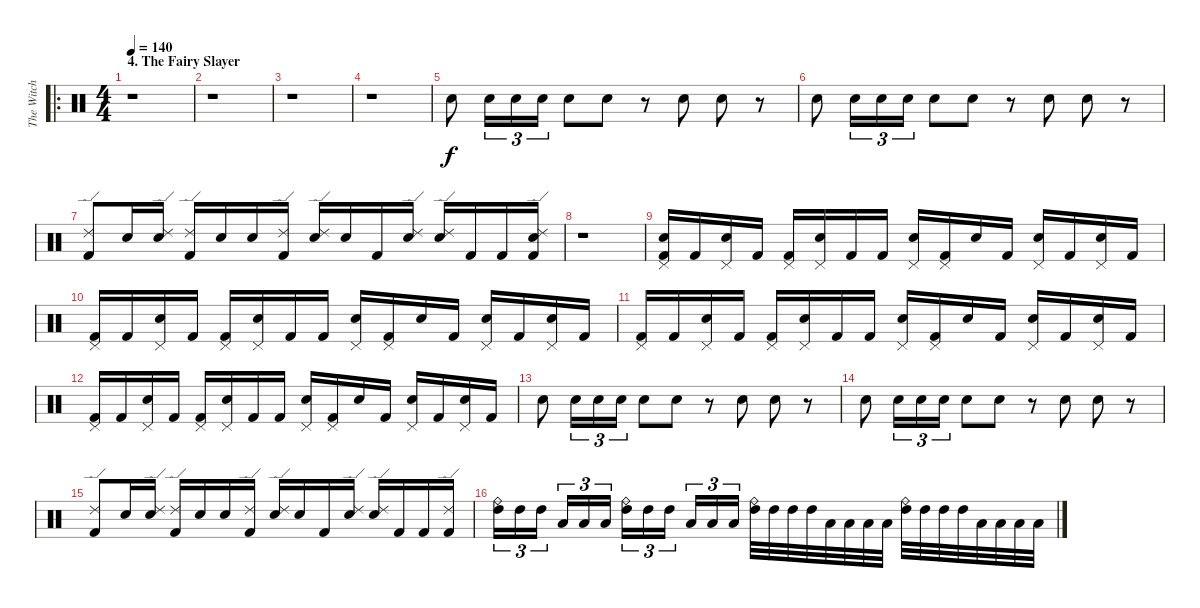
\track ("The Witch" "The Witch") {instrument percussion}
\staff {score}
\articulation defaults
\ro
\ts (4 4)
\section ("" "4. The Fairy Slayer")
\tempo 140
\clef neutral
\ks c
r.1{dy f} |
r.1 |
r.1 |
r.1 |
"Electric Snare (hit)".8 "Electric Snare (hit)".16{tu (3 2)} "Electric Snare (hit)".16{tu (3 2)} "Electric Snare (hit)".16{tu (3 2)} "Electric Snare (hit)".8 "Electric Snare (hit)".8 r.8 "Electric Snare (hit)".8 "Electric Snare (hit)".8 r.8 |
"Electric Snare (hit)".8 "Electric Snare (hit)".16{tu (3 2)} "Electric Snare (hit)".16{tu (3 2)} "Electric Snare (hit)".16{tu (3 2)} "Electric Snare (hit)".8 "Electric Snare (hit)".8 r.8 "Electric Snare (hit)".8 "Electric Snare (hit)".8 r.8 |
("Ride (edge) 2" "Kick (hit) 2").8 "Electric Snare (hit)".16 ("Ride (edge) 2" "Electric Snare (hit)").16 ("Ride (edge) 2" "Kick (hit) 2").16 "Electric Snare (hit)".16 "Electric Snare (hit)".16 ("Ride (edge) 2" "Kick (hit) 2").16 ("Ride (edge) 2" "Electric Snare (hit)").16 "Electric Snare (hit)".16 "Kick (hit) 2".16 ("Ride (edge) 2" "Electric Snare (hit)").16 ("Ride (edge) 2" "Electric Snare (hit)").16 "Kick (hit) 2".16 "Kick (hit) 2".16 ("Ride (edge) 2" "Electric Snare (hit)" "Kick (hit) 2").16 |
r.1 |
("Pedal Hi-Hat (hit)" "Electric Snare (hit)" "Kick (hit) 2").16 "Kick (hit) 2".16 ("Pedal Hi-Hat (hit)" "Electric Snare (hit)").16 "Kick (hit) 2".16 ("Pedal Hi-Hat (hit)" "Kick (hit) 2").16 ("Pedal Hi-Hat (hit)" "Electric Snare (hit)").16 "Kick (hit) 2".16 "Kick (hit) 2".16 ("Pedal Hi-Hat (hit)" "Electric Snare (hit)").16 ("Pedal Hi-Hat (hit)" "Kick (hit) 2").16 "Electric Snare (hit)".16 "Kick (hit) 2".16 ("Pedal Hi-Hat (hit)" "Electric Snare (hit)").16 "Kick (hit) 2".16 ("Pedal Hi-Hat (hit)" "Electric Snare (hit)").16 "Kick (hit) 2".16 |
("Pedal Hi-Hat (hit)" "Kick (hit) 2").16 "Kick (hit) 2".16 ("Pedal Hi-Hat (hit)" "Electric Snare (hit)").16 "Kick (hit) 2".16 ("Pedal Hi-Hat (hit)" "Kick (hit) 2").16 ("Pedal Hi-Hat (hit)" "Electric Snare (hit)").16 "Kick (hit) 2".16 "Kick (hit) 2".16 ("Pedal Hi-Hat (hit)" "Electric Snare (hit)").16 ("Pedal Hi-Hat (hit)" "Kick (hit) 2").16 "Electric Snare (hit)".16 "Kick (hit) 2".16 ("Pedal Hi-Hat (hit)" "Electric Snare (hit)").16 "Kick (hit) 2".16 ("Pedal Hi-Hat (hit)" "Electric Snare (hit)").16 "Kick (hit) 2".16 |
("Pedal Hi-Hat (hit)" "Kick (hit) 2").16 "Kick (hit) 2".16 ("Pedal Hi-Hat (hit)" "Electric Snare (hit)").16 "Kick (hit) 2".16 ("Pedal Hi-Hat (hit)" "Kick (hit) 2").16 ("Pedal Hi-Hat (hit)" "Electric Snare (hit)").16 "Kick (hit) 2".16 "Kick (hit) 2".16 ("Pedal Hi-Hat (hit)" "Electric Snare (hit)").16 ("Pedal Hi-Hat (hit)" "Kick (hit) 2").16 "Electric Snare (hit)".16 "Kick (hit) 2".16 ("Pedal Hi-Hat (hit)" "Electric Snare (hit)").16 "Kick (hit) 2".16 ("Pedal Hi-Hat (hit)" "Electric Snare (hit)").16 "Kick (hit) 2".16 |
("Pedal Hi-Hat (hit)" "Kick (hit) 2").16 "Kick (hit) 2".16 ("Pedal Hi-Hat (hit)" "Electric Snare (hit)").16 "Kick (hit) 2".16 ("Pedal Hi-Hat (hit)" "Kick (hit) 2").16 ("Pedal Hi-Hat (hit)" "Electric Snare (hit)").16 "Kick (hit) 2".16 "Kick (hit) 2".16 ("Pedal Hi-Hat (hit)" "Electric Snare (hit)").16 ("Pedal Hi-Hat (hit)" "Kick (hit) 2").16 "Electric Snare (hit)".16 "Kick (hit) 2".16 ("Pedal Hi-Hat (hit)" "Electric Snare (hit)").16 "Kick (hit) 2".16 ("Pedal Hi-Hat (hit)" "Electric Snare (hit)").16 "Kick (hit) 2".16 |
"Electric Snare (hit)".8 "Electric Snare (hit)".16{tu (3 2)} "Electric Snare (hit)".16{tu (3 2)} "Electric Snare (hit)".16{tu (3 2)} "Electric Snare (hit)".8 "Electric Snare (hit)".8 r.8 "Electric Snare (hit)".8 "Electric Snare (hit)".8 r.8 |
"Electric Snare (hit)".8 "Electric Snare (hit)".16{tu (3 2)} "Electric Snare (hit)".16{tu (3 2)} "Electric Snare (hit)".16{tu (3 2)} "Electric Snare (hit)".8 "Electric Snare (hit)".8 r.8 "Electric Snare (hit)".8 "Electric Snare (hit)".8 r.8 |
("Ride (edge) 2" "Kick (hit) 2").8 "Electric Snare (hit)".16 ("Ride (edge) 2" "Electric Snare (hit)").16 ("Ride (edge) 2" "Kick (hit) 2").16 "Electric Snare (hit)".16 "Electric Snare (hit)".16 ("Ride (edge) 2" "Kick (hit) 2").16 ("Ride (edge) 2" "Electric Snare (hit)").16 "Electric Snare (hit)".16 "Kick (hit) 2".16 ("Ride (edge) 2" "Electric Snare (hit)").16 ("Ride (edge) 2" "Electric Snare (hit)").16 "Kick (hit) 2".16 "Kick (hit) 2".16 ("Ride (edge) 2" "Kick (hit) 2").16 |
("Ride (bell)" "High Tom (hit)").16{tu (3 2)} "High Tom (hit)".16{tu (3 2)} "High Tom (hit)".16{tu (3 2)} "Low Tom (hit)".16{tu (3 2)} "Low Tom (hit)".16{tu (3 2)} "Low Tom (hit)".16{tu (3 2)} ("Ride (bell)" "High Tom (hit)").16{tu (3 2)} "High Tom (hit)".16{tu (3 2)} "High Tom (hit)".16{tu (3 2)} "Low Tom (hit)".16{tu (3 2)} "Low Tom (hit)".16{tu (3 2)} "Low Tom (hit)".16{tu (3 2)} ("Ride (bell)" "High Tom (hit)").32 "High Tom (hit)".32 "High Tom (hit)".32 "High Tom (hit)".32 "Low Tom (hit)".32 "Low Tom (hit)".32 "Low Tom (hit)".32 "Low Tom (hit)".32 ("Ride (bell)" "High Tom (hit)").32 "High Tom (hit)".32 "High Tom (hit)".32 "High Tom (hit)".32 "Low Tom (hit)".32 "Low Tom (hit)".32 "Low Tom (hit)".32 "Low Tom (hit)".32
